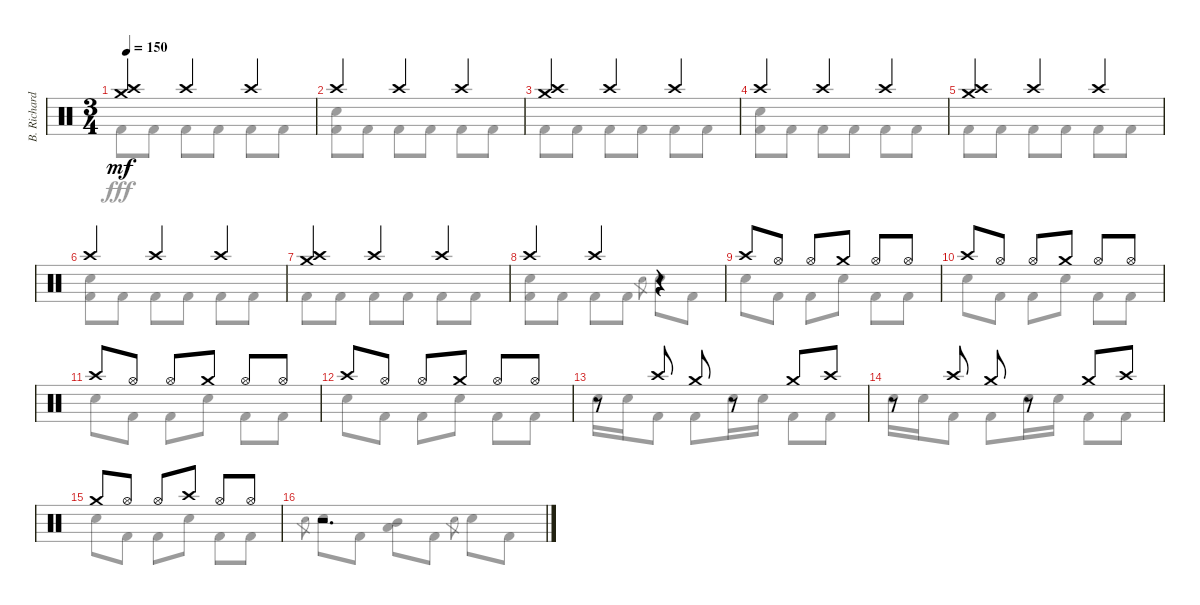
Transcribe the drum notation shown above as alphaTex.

\track ("B. Richardson Drums" "B. Richard") {instrument percussion}
\staff {score}
\articulation defaults
\voice
\ts (3 4)
\tempo 150
\clef neutral
\ks c
("Crash high (hit)" "Crash medium (hit)").4{dy mf} "Crash high (hit)".4 "Crash high (hit)".4 |
"Crash high (hit)".4 "Crash high (hit)".4 "Crash high (hit)".4 |
("Crash high (hit)" "Crash medium (hit)").4 "Crash high (hit)".4 "Crash high (hit)".4 |
"Crash high (hit)".4 "Crash high (hit)".4 "Crash high (hit)".4 |
("Crash high (hit)" "Crash medium (hit)").4 "Crash high (hit)".4 "Crash high (hit)".4 |
"Crash high (hit)".4 "Crash high (hit)".4 "Crash high (hit)".4 |
("Crash high (hit)" "Crash medium (hit)").4 "Crash high (hit)".4 "Crash high (hit)".4 |
"Crash high (hit)".4 "Crash high (hit)".4 r.4 |
"Crash high (hit)".8 "Hi-Hat (open)".8 "Hi-Hat (open)".8 "Crash medium (hit)".8 "Hi-Hat (open)".8 "Hi-Hat (open)".8 |
"Crash high (hit)".8 "Hi-Hat (open)".8 "Hi-Hat (open)".8 "Crash medium (hit)".8 "Hi-Hat (open)".8 "Hi-Hat (open)".8 |
"Crash high (hit)".8 "Hi-Hat (open)".8 "Hi-Hat (open)".8 "Crash medium (hit)".8 "Hi-Hat (open)".8 "Hi-Hat (open)".8 |
"Crash high (hit)".8 "Hi-Hat (open)".8 "Hi-Hat (open)".8 "Crash medium (hit)".8 "Hi-Hat (open)".8 "Hi-Hat (open)".8 |
r.8 "Crash high (hit)".8 "Crash medium (hit)".8 r.8 "Crash medium (hit)".8 "Crash high (hit)".8 |
r.8 "Crash high (hit)".8 "Crash medium (hit)".8 r.8 "Crash medium (hit)".8 "Crash high (hit)".8 |
"Crash medium (hit)".8 "Hi-Hat (open)".8 "Hi-Hat (open)".8 "Crash high (hit)".8 "Hi-Hat (open)".8 "Hi-Hat (open)".8 |
r.2{d}
\voice
\clef neutral
\ottava regular
\simile none
\ks c "Kick (hit) 2".8{dy fff} "Kick (hit) 2".8 "Kick (hit) 2".8 "Kick (hit) 2".8 "Kick (hit) 2".8 "Kick (hit) 2".8
|
("Electric Snare (hit)" "Kick (hit) 2").8 "Kick (hit) 2".8 "Kick (hit) 2".8 "Kick (hit) 2".8 "Kick (hit) 2".8 "Kick (hit) 2".8 |
"Kick (hit) 2".8 "Kick (hit) 2".8 "Kick (hit) 2".8 "Kick (hit) 2".8 "Kick (hit) 2".8 "Kick (hit) 2".8 |
("Electric Snare (hit)" "Kick (hit) 2").8 "Kick (hit) 2".8 "Kick (hit) 2".8 "Kick (hit) 2".8 "Kick (hit) 2".8 "Kick (hit) 2".8 |
"Kick (hit) 2".8 "Kick (hit) 2".8 "Kick (hit) 2".8 "Kick (hit) 2".8 "Kick (hit) 2".8 "Kick (hit) 2".8 |
("Electric Snare (hit)" "Kick (hit) 2").8 "Kick (hit) 2".8 "Kick (hit) 2".8 "Kick (hit) 2".8 "Kick (hit) 2".8 "Kick (hit) 2".8 |
"Kick (hit) 2".8 "Kick (hit) 2".8 "Kick (hit) 2".8 "Kick (hit) 2".8 "Kick (hit) 2".8 "Kick (hit) 2".8 |
("Electric Snare (hit)" "Kick (hit) 2").8 "Kick (hit) 2".8 "Kick (hit) 2".8 "Kick (hit) 2".8 "Electric Snare (hit)".8{gr} "Electric Snare (hit)".8 "Kick (hit) 2".8 |
"Electric Snare (hit)".8 "Kick (hit) 2".8 "Kick (hit) 2".8 "Electric Snare (hit)".8 "Kick (hit) 2".8 "Kick (hit) 2".8 |
"Electric Snare (hit)".8 "Kick (hit) 2".8 "Kick (hit) 2".8 "Electric Snare (hit)".8 "Kick (hit) 2".8 "Kick (hit) 2".8 |
"Electric Snare (hit)".8 "Kick (hit) 2".8 "Kick (hit) 2".8 "Electric Snare (hit)".8 "Kick (hit) 2".8 "Kick (hit) 2".8 |
"Electric Snare (hit)".8 "Kick (hit) 2".8 "Kick (hit) 2".8 "Electric Snare (hit)".8 "Kick (hit) 2".8 "Kick (hit) 2".8 |
"Electric Snare (hit)".16 "Electric Snare (hit)".16 "Kick (hit) 2".8 "Kick (hit) 2".8 "Electric Snare (hit)".16 "Electric Snare (hit)".16 "Kick (hit) 2".8 "Kick (hit) 2".8 |
"Electric Snare (hit)".16 "Electric Snare (hit)".16 "Kick (hit) 2".8 "Kick (hit) 2".8 "Electric Snare (hit)".16 "Electric Snare (hit)".16 "Kick (hit) 2".8 "Kick (hit) 2".8 |
"Electric Snare (hit)".8 "Kick (hit) 2".8 "Kick (hit) 2".8 "Electric Snare (hit)".8 "Kick (hit) 2".8 "Kick (hit) 2".8 |
"Electric Snare (hit)".8{gr} "Electric Snare (hit)".8 "Kick (hit) 2".8 ("Mid Tom (hit)" "Low Tom (hit)").8 "Kick (hit) 2".8 "Electric Snare (hit)".8{gr} "Electric Snare (hit)".8 "Kick (hit) 2".8
